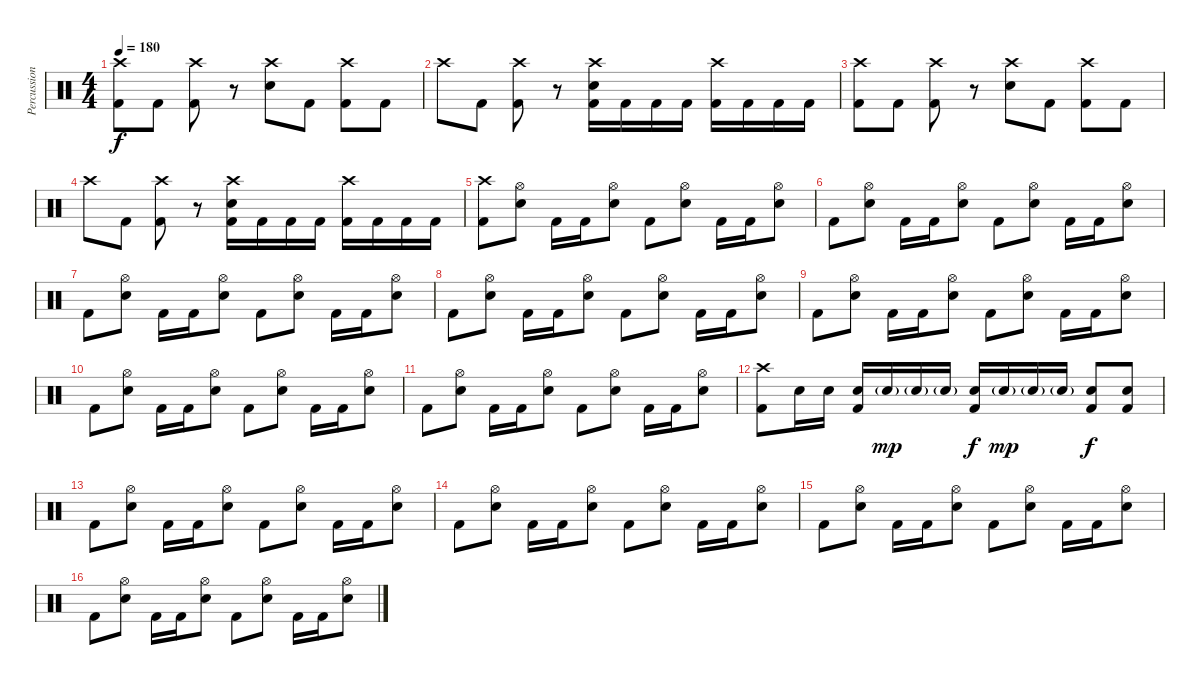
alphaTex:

\track ("Percussion" "Percussion") {instrument percussion}
\staff {score}
\articulation defaults
\ts (4 4)
\tempo 180
\clef neutral
\ks c
("Crash high (hit)" "Kick (hit) 2").8{dy f} "Kick (hit) 2".8 ("Crash high (hit)" "Kick (hit) 2").8 r.8 ("Crash high (hit)" "Electric Snare (hit)").8 "Kick (hit) 2".8 ("Crash high (hit)" "Kick (hit) 2").8 "Kick (hit) 2".8 |
"Crash high (hit)".8 "Kick (hit) 2".8 ("Crash high (hit)" "Kick (hit) 2").8 r.8 ("Crash high (hit)" "Electric Snare (hit)" "Kick (hit) 2").16 "Kick (hit) 2".16 "Kick (hit) 2".16 "Kick (hit) 2".16 ("Crash high (hit)" "Kick (hit) 2").16 "Kick (hit) 2".16 "Kick (hit) 2".16 "Kick (hit) 2".16 |
("Crash high (hit)" "Kick (hit) 2").8 "Kick (hit) 2".8 ("Crash high (hit)" "Kick (hit) 2").8 r.8 ("Crash high (hit)" "Electric Snare (hit)").8 "Kick (hit) 2".8 ("Crash high (hit)" "Kick (hit) 2").8 "Kick (hit) 2".8 |
"Crash high (hit)".8 "Kick (hit) 2".8 ("Crash high (hit)" "Kick (hit) 2").8 r.8 ("Crash high (hit)" "Electric Snare (hit)" "Kick (hit) 2").16 "Kick (hit) 2".16 "Kick (hit) 2".16 "Kick (hit) 2".16 ("Crash high (hit)" "Kick (hit) 2").16 "Kick (hit) 2".16 "Kick (hit) 2".16 "Kick (hit) 2".16 |
("Crash high (hit)" "Kick (hit) 2").8 ("Hi-Hat (open)" "Electric Snare (hit)").8 "Kick (hit) 2".16 "Kick (hit) 2".16 ("Hi-Hat (open)" "Electric Snare (hit)").8 "Kick (hit) 2".8 ("Hi-Hat (open)" "Electric Snare (hit)").8 "Kick (hit) 2".16 "Kick (hit) 2".16 ("Hi-Hat (open)" "Electric Snare (hit)").8 |
"Kick (hit) 2".8 ("Hi-Hat (open)" "Electric Snare (hit)").8 "Kick (hit) 2".16 "Kick (hit) 2".16 ("Hi-Hat (open)" "Electric Snare (hit)").8 "Kick (hit) 2".8 ("Hi-Hat (open)" "Electric Snare (hit)").8 "Kick (hit) 2".16 "Kick (hit) 2".16 ("Hi-Hat (open)" "Electric Snare (hit)").8 |
"Kick (hit) 2".8 ("Hi-Hat (open)" "Electric Snare (hit)").8 "Kick (hit) 2".16 "Kick (hit) 2".16 ("Hi-Hat (open)" "Electric Snare (hit)").8 "Kick (hit) 2".8 ("Hi-Hat (open)" "Electric Snare (hit)").8 "Kick (hit) 2".16 "Kick (hit) 2".16 ("Hi-Hat (open)" "Electric Snare (hit)").8 |
"Kick (hit) 2".8 ("Hi-Hat (open)" "Electric Snare (hit)").8 "Kick (hit) 2".16 "Kick (hit) 2".16 ("Hi-Hat (open)" "Electric Snare (hit)").8 "Kick (hit) 2".8 ("Hi-Hat (open)" "Electric Snare (hit)").8 "Kick (hit) 2".16 "Kick (hit) 2".16 ("Hi-Hat (open)" "Electric Snare (hit)").8 |
"Kick (hit) 2".8 ("Hi-Hat (open)" "Electric Snare (hit)").8 "Kick (hit) 2".16 "Kick (hit) 2".16 ("Hi-Hat (open)" "Electric Snare (hit)").8 "Kick (hit) 2".8 ("Hi-Hat (open)" "Electric Snare (hit)").8 "Kick (hit) 2".16 "Kick (hit) 2".16 ("Hi-Hat (open)" "Electric Snare (hit)").8 |
"Kick (hit) 2".8 ("Hi-Hat (open)" "Electric Snare (hit)").8 "Kick (hit) 2".16 "Kick (hit) 2".16 ("Hi-Hat (open)" "Electric Snare (hit)").8 "Kick (hit) 2".8 ("Hi-Hat (open)" "Electric Snare (hit)").8 "Kick (hit) 2".16 "Kick (hit) 2".16 ("Hi-Hat (open)" "Electric Snare (hit)").8 |
"Kick (hit) 2".8 ("Hi-Hat (open)" "Electric Snare (hit)").8 "Kick (hit) 2".16 "Kick (hit) 2".16 ("Hi-Hat (open)" "Electric Snare (hit)").8 "Kick (hit) 2".8 ("Hi-Hat (open)" "Electric Snare (hit)").8 "Kick (hit) 2".16 "Kick (hit) 2".16 ("Hi-Hat (open)" "Electric Snare (hit)").8 |
("Crash high (hit)" "Kick (hit) 2").8 "Electric Snare (hit)".16 "Electric Snare (hit)".16 ("Electric Snare (hit)" "Kick (hit) 2").16 "Electric Snare (hit)"{g}.16{dy mp} "Electric Snare (hit)"{g}.16 "Electric Snare (hit)"{g}.16 ("Electric Snare (hit)" "Kick (hit) 2").16{dy f} "Electric Snare (hit)"{g}.16{dy mp} "Electric Snare (hit)"{g}.16 "Electric Snare (hit)"{g}.16 ("Electric Snare (hit)" "Kick (hit) 2").8{dy f} ("Electric Snare (hit)" "Kick (hit) 2").8 |
"Kick (hit) 2".8 ("Hi-Hat (open)" "Electric Snare (hit)").8 "Kick (hit) 2".16 "Kick (hit) 2".16 ("Hi-Hat (open)" "Electric Snare (hit)").8 "Kick (hit) 2".8 ("Hi-Hat (open)" "Electric Snare (hit)").8 "Kick (hit) 2".16 "Kick (hit) 2".16 ("Hi-Hat (open)" "Electric Snare (hit)").8 |
"Kick (hit) 2".8 ("Hi-Hat (open)" "Electric Snare (hit)").8 "Kick (hit) 2".16 "Kick (hit) 2".16 ("Hi-Hat (open)" "Electric Snare (hit)").8 "Kick (hit) 2".8 ("Hi-Hat (open)" "Electric Snare (hit)").8 "Kick (hit) 2".16 "Kick (hit) 2".16 ("Hi-Hat (open)" "Electric Snare (hit)").8 |
"Kick (hit) 2".8 ("Hi-Hat (open)" "Electric Snare (hit)").8 "Kick (hit) 2".16 "Kick (hit) 2".16 ("Hi-Hat (open)" "Electric Snare (hit)").8 "Kick (hit) 2".8 ("Hi-Hat (open)" "Electric Snare (hit)").8 "Kick (hit) 2".16 "Kick (hit) 2".16 ("Hi-Hat (open)" "Electric Snare (hit)").8 |
"Kick (hit) 2".8 ("Hi-Hat (open)" "Electric Snare (hit)").8 "Kick (hit) 2".16 "Kick (hit) 2".16 ("Hi-Hat (open)" "Electric Snare (hit)").8 "Kick (hit) 2".8 ("Hi-Hat (open)" "Electric Snare (hit)").8 "Kick (hit) 2".16 "Kick (hit) 2".16 ("Hi-Hat (open)" "Electric Snare (hit)").8
